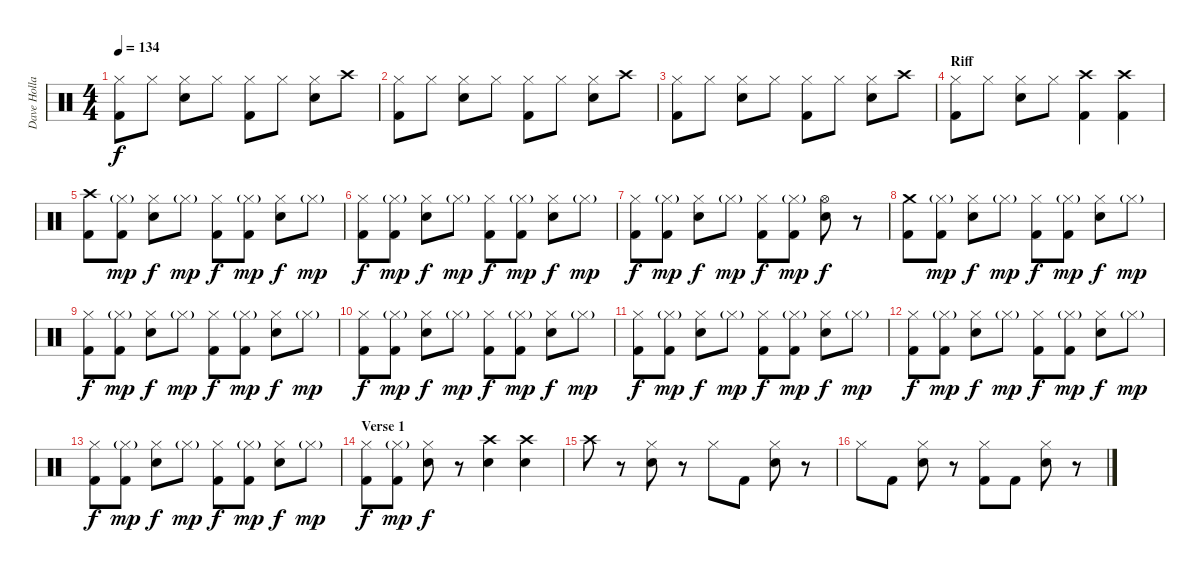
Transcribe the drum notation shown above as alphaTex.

\track ("Dave Holland" "Dave Holla") {instrument percussion}
\staff {score}
\articulation defaults
\ts (4 4)
\tempo 134
\clef neutral
\ks c
("Hi-Hat (closed)" "Kick (hit) 2").8{dy f} "Hi-Hat (closed)".8 ("Hi-Hat (closed)" "Snare (hit) 2").8 "Hi-Hat (closed)".8 ("Hi-Hat (closed)" "Kick (hit) 2").8 "Hi-Hat (closed)".8 ("Hi-Hat (closed)" "Snare (hit) 2").8 "Crash high (hit)".8 |
("Hi-Hat (closed)" "Kick (hit) 2").8 "Hi-Hat (closed)".8 ("Hi-Hat (closed)" "Snare (hit) 2").8 "Hi-Hat (closed)".8 ("Hi-Hat (closed)" "Kick (hit) 2").8 "Hi-Hat (closed)".8 ("Hi-Hat (closed)" "Snare (hit) 2").8 "Crash high (hit)".8 |
("Hi-Hat (closed)" "Kick (hit) 2").8 "Hi-Hat (closed)".8 ("Hi-Hat (closed)" "Snare (hit) 2").8 "Hi-Hat (closed)".8 ("Hi-Hat (closed)" "Kick (hit) 2").8 "Hi-Hat (closed)".8 ("Hi-Hat (closed)" "Snare (hit) 2").8 "Crash high (hit)".8 |
\section ("" "Riff ")
("Hi-Hat (closed)" "Kick (hit) 2").8 "Hi-Hat (closed)".8 ("Hi-Hat (closed)" "Snare (hit) 2").8 "Hi-Hat (closed)".8 ("Crash high (hit)" "Kick (hit) 2").4 ("Crash high (hit)" "Kick (hit) 2").4 |
("Crash high (hit)" "Kick (hit) 2").8 ("Hi-Hat (closed)"{g} "Kick (hit) 2").8{dy mp} ("Hi-Hat (closed)" "Snare (hit) 2").8{dy f} "Hi-Hat (closed)"{g}.8{dy mp} ("Hi-Hat (closed)" "Kick (hit) 2").8{dy f} ("Hi-Hat (closed)"{g} "Kick (hit) 2").8{dy mp} ("Hi-Hat (closed)" "Snare (hit) 2").8{dy f} "Hi-Hat (closed)"{g}.8{dy mp} |
("Hi-Hat (closed)" "Kick (hit) 2").8{dy f} ("Hi-Hat (closed)"{g} "Kick (hit) 2").8{dy mp} ("Hi-Hat (closed)" "Snare (hit) 2").8{dy f} "Hi-Hat (closed)"{g}.8{dy mp} ("Hi-Hat (closed)" "Kick (hit) 2").8{dy f} ("Hi-Hat (closed)"{g} "Kick (hit) 2").8{dy mp} ("Hi-Hat (closed)" "Snare (hit) 2").8{dy f} "Hi-Hat (closed)"{g}.8{dy mp} |
("Hi-Hat (closed)" "Kick (hit) 2").8{dy f} ("Hi-Hat (closed)"{g} "Kick (hit) 2").8{dy mp} ("Hi-Hat (closed)" "Snare (hit) 2").8{dy f} "Hi-Hat (closed)"{g}.8{dy mp} ("Hi-Hat (closed)" "Kick (hit) 2").8{dy f} ("Hi-Hat (closed)"{g} "Kick (hit) 2").8{dy mp} ("Hi-Hat (open)" "Snare (hit) 2").8{dy f} r.8 |
("Crash medium (hit)" "Kick (hit) 2").8 ("Hi-Hat (closed)"{g} "Kick (hit) 2").8{dy mp} ("Hi-Hat (closed)" "Snare (hit) 2").8{dy f} "Hi-Hat (closed)"{g}.8{dy mp} ("Hi-Hat (closed)" "Kick (hit) 2").8{dy f} ("Hi-Hat (closed)"{g} "Kick (hit) 2").8{dy mp} ("Hi-Hat (closed)" "Snare (hit) 2").8{dy f} "Hi-Hat (closed)"{g}.8{dy mp} |
("Hi-Hat (closed)" "Kick (hit) 2").8{dy f} ("Hi-Hat (closed)"{g} "Kick (hit) 2").8{dy mp} ("Hi-Hat (closed)" "Snare (hit) 2").8{dy f} "Hi-Hat (closed)"{g}.8{dy mp} ("Hi-Hat (closed)" "Kick (hit) 2").8{dy f} ("Hi-Hat (closed)"{g} "Kick (hit) 2").8{dy mp} ("Hi-Hat (closed)" "Snare (hit) 2").8{dy f} "Hi-Hat (closed)"{g}.8{dy mp} |
("Hi-Hat (closed)" "Kick (hit) 2").8{dy f} ("Hi-Hat (closed)"{g} "Kick (hit) 2").8{dy mp} ("Hi-Hat (closed)" "Snare (hit) 2").8{dy f} "Hi-Hat (closed)"{g}.8{dy mp} ("Hi-Hat (closed)" "Kick (hit) 2").8{dy f} ("Hi-Hat (closed)"{g} "Kick (hit) 2").8{dy mp} ("Hi-Hat (closed)" "Snare (hit) 2").8{dy f} "Hi-Hat (closed)"{g}.8{dy mp} |
("Hi-Hat (closed)" "Kick (hit) 2").8{dy f} ("Hi-Hat (closed)"{g} "Kick (hit) 2").8{dy mp} ("Hi-Hat (closed)" "Snare (hit) 2").8{dy f} "Hi-Hat (closed)"{g}.8{dy mp} ("Hi-Hat (closed)" "Kick (hit) 2").8{dy f} ("Hi-Hat (closed)"{g} "Kick (hit) 2").8{dy mp} ("Hi-Hat (closed)" "Snare (hit) 2").8{dy f} "Hi-Hat (closed)"{g}.8{dy mp} |
("Hi-Hat (closed)" "Kick (hit) 2").8{dy f} ("Hi-Hat (closed)"{g} "Kick (hit) 2").8{dy mp} ("Hi-Hat (closed)" "Snare (hit) 2").8{dy f} "Hi-Hat (closed)"{g}.8{dy mp} ("Hi-Hat (closed)" "Kick (hit) 2").8{dy f} ("Hi-Hat (closed)"{g} "Kick (hit) 2").8{dy mp} ("Hi-Hat (closed)" "Snare (hit) 2").8{dy f} "Hi-Hat (closed)"{g}.8{dy mp} |
("Hi-Hat (closed)" "Kick (hit) 2").8{dy f} ("Hi-Hat (closed)"{g} "Kick (hit) 2").8{dy mp} ("Hi-Hat (closed)" "Snare (hit) 2").8{dy f} "Hi-Hat (closed)"{g}.8{dy mp} ("Hi-Hat (closed)" "Kick (hit) 2").8{dy f} ("Hi-Hat (closed)"{g} "Kick (hit) 2").8{dy mp} ("Hi-Hat (closed)" "Snare (hit) 2").8{dy f} "Hi-Hat (closed)"{g}.8{dy mp} |
\section ("" "Verse 1")
("Hi-Hat (closed)" "Kick (hit) 2").8{dy f} ("Hi-Hat (closed)"{g} "Kick (hit) 2").8{dy mp} ("Hi-Hat (closed)" "Snare (hit) 2").8{dy f} r.8 ("Crash high (hit)" "Snare (hit) 2").4 ("Crash high (hit)" "Snare (hit) 2").4 |
"Crash high (hit)".8 r.8 ("Hi-Hat (closed)" "Snare (hit) 2").8 r.8 "Hi-Hat (closed)".8 "Kick (hit) 2".8 ("Hi-Hat (closed)" "Snare (hit) 2").8 r.8 |
"Hi-Hat (closed)".8 "Kick (hit) 2".8 ("Hi-Hat (closed)" "Snare (hit) 2").8 r.8 ("Hi-Hat (closed)" "Kick (hit) 2").8 "Kick (hit) 2".8 ("Hi-Hat (closed)" "Snare (hit) 2").8 r.8
